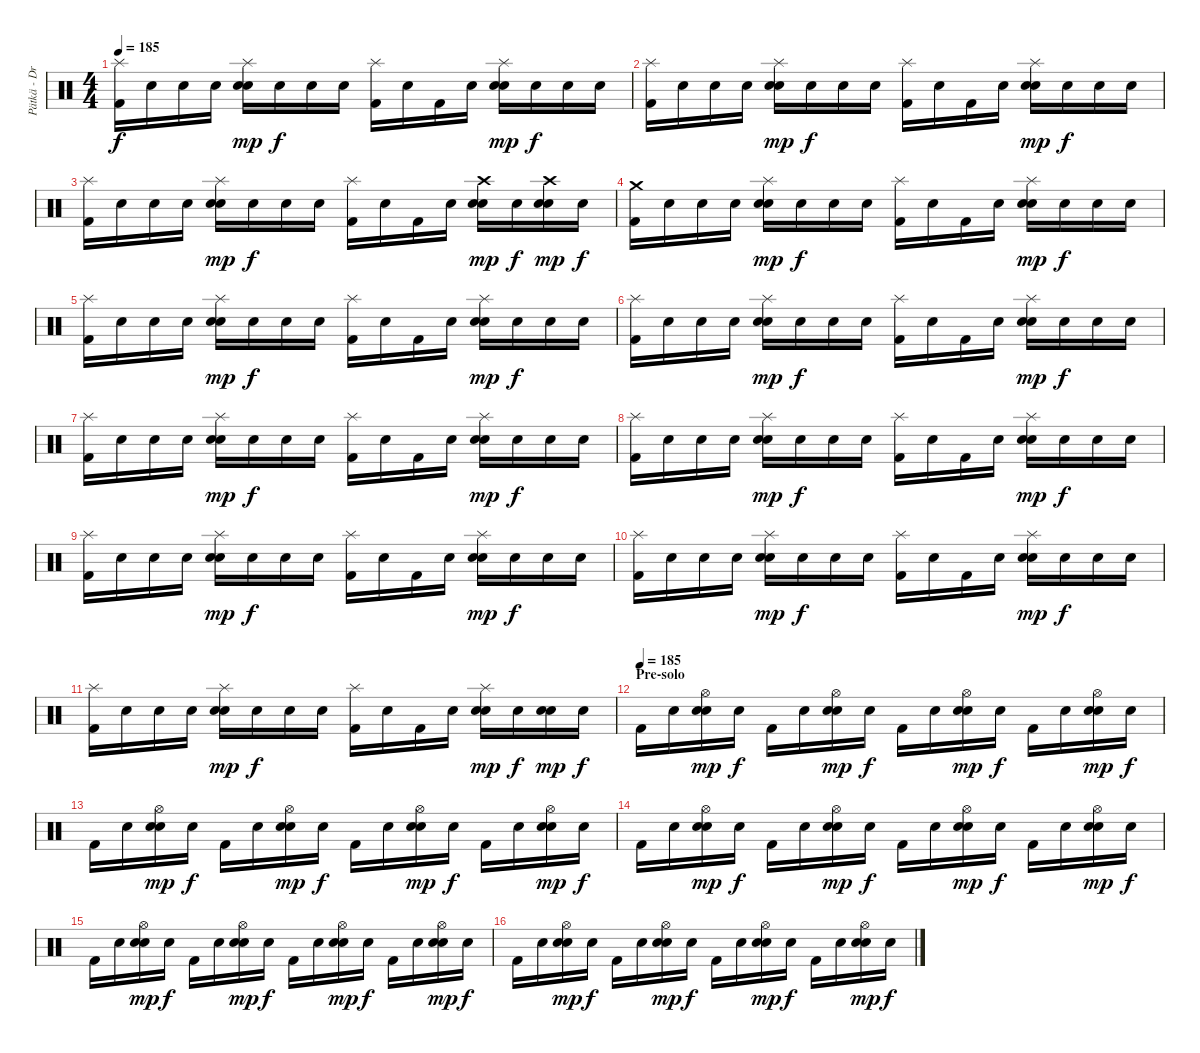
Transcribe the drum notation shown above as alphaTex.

\track ("Pätkä - Drums" "Pätkä - Dr") {instrument percussion}
\staff {score}
\articulation defaults
\ts (4 4)
\tempo 185
\clef neutral
\ks c
("Splash (hit)" "Kick (hit) 2").16{dy f} "Snare (hit)".16 "Snare (hit)".16 "Snare (hit)".16 ("Splash (hit)" "Electric Snare (hit)" "Snare (hit) 2").16{dy mp} "Snare (hit)".16{dy f} "Snare (hit)".16 "Snare (hit)".16 ("Splash (hit)" "Kick (hit) 2").16 "Snare (hit)".16 "Kick (hit) 2".16 "Snare (hit)".16 ("Splash (hit)" "Electric Snare (hit)" "Snare (hit) 2").16{dy mp} "Snare (hit)".16{dy f} "Snare (hit)".16 "Snare (hit)".16 |
("Splash (hit)" "Kick (hit) 2").16 "Snare (hit)".16 "Snare (hit)".16 "Snare (hit)".16 ("Splash (hit)" "Electric Snare (hit)" "Snare (hit) 2").16{dy mp} "Snare (hit)".16{dy f} "Snare (hit)".16 "Snare (hit)".16 ("Splash (hit)" "Kick (hit) 2").16 "Snare (hit)".16 "Kick (hit) 2".16 "Snare (hit)".16 ("Splash (hit)" "Electric Snare (hit)" "Snare (hit) 2").16{dy mp} "Snare (hit)".16{dy f} "Snare (hit)".16 "Snare (hit)".16 |
("Splash (hit)" "Kick (hit) 2").16 "Snare (hit)".16 "Snare (hit)".16 "Snare (hit)".16 ("Splash (hit)" "Electric Snare (hit)" "Snare (hit) 2").16{dy mp} "Snare (hit)".16{dy f} "Snare (hit)".16 "Snare (hit)".16 ("Splash (hit)" "Kick (hit) 2").16 "Snare (hit)".16 "Kick (hit) 2".16 "Snare (hit)".16 ("Crash high (hit)" "Electric Snare (hit)" "Snare (hit) 2").16{dy mp} "Snare (hit)".16{dy f} ("Crash high (hit)" "Electric Snare (hit)" "Snare (hit) 2").16{dy mp} "Snare (hit)".16{dy f} |
("Crash medium (hit)" "Kick (hit) 2").16 "Snare (hit)".16 "Snare (hit)".16 "Snare (hit)".16 ("Splash (hit)" "Electric Snare (hit)" "Snare (hit) 2").16{dy mp} "Snare (hit)".16{dy f} "Snare (hit)".16 "Snare (hit)".16 ("Splash (hit)" "Kick (hit) 2").16 "Snare (hit)".16 "Kick (hit) 2".16 "Snare (hit)".16 ("Splash (hit)" "Electric Snare (hit)" "Snare (hit) 2").16{dy mp} "Snare (hit)".16{dy f} "Snare (hit)".16 "Snare (hit)".16 |
("Splash (hit)" "Kick (hit) 2").16 "Snare (hit)".16 "Snare (hit)".16 "Snare (hit)".16 ("Splash (hit)" "Electric Snare (hit)" "Snare (hit) 2").16{dy mp} "Snare (hit)".16{dy f} "Snare (hit)".16 "Snare (hit)".16 ("Splash (hit)" "Kick (hit) 2").16 "Snare (hit)".16 "Kick (hit) 2".16 "Snare (hit)".16 ("Splash (hit)" "Electric Snare (hit)" "Snare (hit) 2").16{dy mp} "Snare (hit)".16{dy f} "Snare (hit)".16 "Snare (hit)".16 |
("Splash (hit)" "Kick (hit) 2").16 "Snare (hit)".16 "Snare (hit)".16 "Snare (hit)".16 ("Splash (hit)" "Electric Snare (hit)" "Snare (hit) 2").16{dy mp} "Snare (hit)".16{dy f} "Snare (hit)".16 "Snare (hit)".16 ("Splash (hit)" "Kick (hit) 2").16 "Snare (hit)".16 "Kick (hit) 2".16 "Snare (hit)".16 ("Splash (hit)" "Electric Snare (hit)" "Snare (hit) 2").16{dy mp} "Snare (hit)".16{dy f} "Snare (hit)".16 "Snare (hit)".16 |
("Splash (hit)" "Kick (hit) 2").16 "Snare (hit)".16 "Snare (hit)".16 "Snare (hit)".16 ("Splash (hit)" "Electric Snare (hit)" "Snare (hit) 2").16{dy mp} "Snare (hit)".16{dy f} "Snare (hit)".16 "Snare (hit)".16 ("Splash (hit)" "Kick (hit) 2").16 "Snare (hit)".16 "Kick (hit) 2".16 "Snare (hit)".16 ("Splash (hit)" "Electric Snare (hit)" "Snare (hit) 2").16{dy mp} "Snare (hit)".16{dy f} "Snare (hit)".16 "Snare (hit)".16 |
("Splash (hit)" "Kick (hit) 2").16 "Snare (hit)".16 "Snare (hit)".16 "Snare (hit)".16 ("Splash (hit)" "Electric Snare (hit)" "Snare (hit) 2").16{dy mp} "Snare (hit)".16{dy f} "Snare (hit)".16 "Snare (hit)".16 ("Splash (hit)" "Kick (hit) 2").16 "Snare (hit)".16 "Kick (hit) 2".16 "Snare (hit)".16 ("Splash (hit)" "Electric Snare (hit)" "Snare (hit) 2").16{dy mp} "Snare (hit)".16{dy f} "Snare (hit)".16 "Snare (hit)".16 |
("Splash (hit)" "Kick (hit) 2").16 "Snare (hit)".16 "Snare (hit)".16 "Snare (hit)".16 ("Splash (hit)" "Electric Snare (hit)" "Snare (hit) 2").16{dy mp} "Snare (hit)".16{dy f} "Snare (hit)".16 "Snare (hit)".16 ("Splash (hit)" "Kick (hit) 2").16 "Snare (hit)".16 "Kick (hit) 2".16 "Snare (hit)".16 ("Splash (hit)" "Electric Snare (hit)" "Snare (hit) 2").16{dy mp} "Snare (hit)".16{dy f} "Snare (hit)".16 "Snare (hit)".16 |
("Splash (hit)" "Kick (hit) 2").16 "Snare (hit)".16 "Snare (hit)".16 "Snare (hit)".16 ("Splash (hit)" "Electric Snare (hit)" "Snare (hit) 2").16{dy mp} "Snare (hit)".16{dy f} "Snare (hit)".16 "Snare (hit)".16 ("Splash (hit)" "Kick (hit) 2").16 "Snare (hit)".16 "Kick (hit) 2".16 "Snare (hit)".16 ("Splash (hit)" "Electric Snare (hit)" "Snare (hit) 2").16{dy mp} "Snare (hit)".16{dy f} "Snare (hit)".16 "Snare (hit)".16 |
("Splash (hit)" "Kick (hit) 2").16 "Snare (hit)".16 "Snare (hit)".16 "Snare (hit)".16 ("Splash (hit)" "Electric Snare (hit)" "Snare (hit) 2").16{dy mp} "Snare (hit)".16{dy f} "Snare (hit)".16 "Snare (hit)".16 ("Splash (hit)" "Kick (hit) 2").16 "Snare (hit)".16 "Kick (hit) 2".16 "Snare (hit)".16 ("Splash (hit)" "Electric Snare (hit)" "Snare (hit) 2").16{dy mp} "Snare (hit)".16{dy f} ("Electric Snare (hit)" "Snare (hit) 2").16{dy mp} "Snare (hit)".16{dy f} |
\section ("" "Pre-solo")
\tempo (185)
"Kick (hit) 2".16{volume 16 balance 8} "Snare (hit)".16 ("Hi-Hat (open)" "Electric Snare (hit)" "Snare (hit) 2").16{dy mp} "Snare (hit)".16{dy f} "Kick (hit) 2".16 "Snare (hit)".16 ("Hi-Hat (open)" "Electric Snare (hit)" "Snare (hit) 2").16{dy mp} "Snare (hit)".16{dy f} "Kick (hit) 2".16 "Snare (hit)".16 ("Hi-Hat (open)" "Electric Snare (hit)" "Snare (hit) 2").16{dy mp} "Snare (hit)".16{dy f} "Kick (hit) 2".16 "Snare (hit)".16 ("Hi-Hat (open)" "Electric Snare (hit)" "Snare (hit) 2").16{dy mp} "Snare (hit)".16{dy f} |
"Kick (hit) 2".16 "Snare (hit)".16 ("Hi-Hat (open)" "Electric Snare (hit)" "Snare (hit) 2").16{dy mp} "Snare (hit)".16{dy f} "Kick (hit) 2".16 "Snare (hit)".16 ("Hi-Hat (open)" "Electric Snare (hit)" "Snare (hit) 2").16{dy mp} "Snare (hit)".16{dy f} "Kick (hit) 2".16 "Snare (hit)".16 ("Hi-Hat (open)" "Electric Snare (hit)" "Snare (hit) 2").16{dy mp} "Snare (hit)".16{dy f} "Kick (hit) 2".16 "Snare (hit)".16 ("Hi-Hat (open)" "Electric Snare (hit)" "Snare (hit) 2").16{dy mp} "Snare (hit)".16{dy f} |
"Kick (hit) 2".16 "Snare (hit)".16 ("Hi-Hat (open)" "Electric Snare (hit)" "Snare (hit) 2").16{dy mp} "Snare (hit)".16{dy f} "Kick (hit) 2".16 "Snare (hit)".16 ("Hi-Hat (open)" "Electric Snare (hit)" "Snare (hit) 2").16{dy mp} "Snare (hit)".16{dy f} "Kick (hit) 2".16 "Snare (hit)".16 ("Hi-Hat (open)" "Electric Snare (hit)" "Snare (hit) 2").16{dy mp} "Snare (hit)".16{dy f} "Kick (hit) 2".16 "Snare (hit)".16 ("Hi-Hat (open)" "Electric Snare (hit)" "Snare (hit) 2").16{dy mp} "Snare (hit)".16{dy f} |
"Kick (hit) 2".16 "Snare (hit)".16 ("Hi-Hat (open)" "Electric Snare (hit)" "Snare (hit) 2").16{dy mp} "Snare (hit)".16{dy f} "Kick (hit) 2".16 "Snare (hit)".16 ("Hi-Hat (open)" "Electric Snare (hit)" "Snare (hit) 2").16{dy mp} "Snare (hit)".16{dy f} "Kick (hit) 2".16 "Snare (hit)".16 ("Hi-Hat (open)" "Electric Snare (hit)" "Snare (hit) 2").16{dy mp} "Snare (hit)".16{dy f} "Kick (hit) 2".16 "Snare (hit)".16 ("Hi-Hat (open)" "Electric Snare (hit)" "Snare (hit) 2").16{dy mp} "Snare (hit)".16{dy f} |
"Kick (hit) 2".16 "Snare (hit)".16 ("Hi-Hat (open)" "Electric Snare (hit)" "Snare (hit) 2").16{dy mp} "Snare (hit)".16{dy f} "Kick (hit) 2".16 "Snare (hit)".16 ("Hi-Hat (open)" "Electric Snare (hit)" "Snare (hit) 2").16{dy mp} "Snare (hit)".16{dy f} "Kick (hit) 2".16 "Snare (hit)".16 ("Hi-Hat (open)" "Electric Snare (hit)" "Snare (hit) 2").16{dy mp} "Snare (hit)".16{dy f} "Kick (hit) 2".16 "Snare (hit)".16 ("Hi-Hat (open)" "Electric Snare (hit)" "Snare (hit) 2").16{dy mp} "Snare (hit)".16{dy f}
